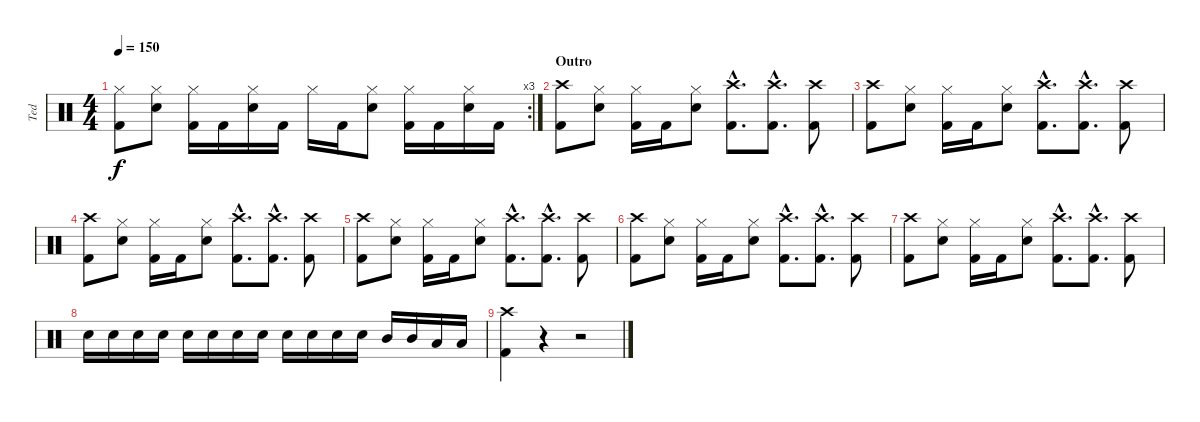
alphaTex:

\track ("Ted" "Ted") {instrument percussion}
\staff {score}
\articulation defaults
\rc 3
\ts (4 4)
\tempo 150
\clef neutral
\ks c
("Hi-Hat (closed)" "Kick (hit) 2").8{dy f} ("Hi-Hat (closed)" "Electric Snare (hit)").8 ("Hi-Hat (closed)" "Kick (hit) 2").16 "Kick (hit) 2".16 ("Hi-Hat (closed)" "Electric Snare (hit)").16 "Kick (hit) 2".16 "Hi-Hat (closed)".16 "Kick (hit) 2".16 ("Hi-Hat (closed)" "Electric Snare (hit)").8 ("Hi-Hat (closed)" "Kick (hit) 2").16 "Kick (hit) 2".16 ("Hi-Hat (closed)" "Electric Snare (hit)").16 "Kick (hit) 2".16 |
\section ("" "Outro")
("Crash high (hit)" "Kick (hit) 2").8 ("Hi-Hat (closed)" "Electric Snare (hit)").8 ("Hi-Hat (closed)" "Kick (hit) 2").16 "Kick (hit) 2".16 ("Hi-Hat (closed)" "Electric Snare (hit)").8 ("Crash high (hit)"{hac} "Kick (hit) 2"{hac}).8{d} ("Crash high (hit)"{hac} "Kick (hit) 2"{hac}).8{d} ("Crash high (hit)" "Kick (hit) 2").8 |
("Crash high (hit)" "Kick (hit) 2").8 ("Hi-Hat (closed)" "Electric Snare (hit)").8 ("Hi-Hat (closed)" "Kick (hit) 2").16 "Kick (hit) 2".16 ("Hi-Hat (closed)" "Electric Snare (hit)").8 ("Crash high (hit)"{hac} "Kick (hit) 2"{hac}).8{d} ("Crash high (hit)"{hac} "Kick (hit) 2"{hac}).8{d} ("Crash high (hit)" "Kick (hit) 2").8 |
("Crash high (hit)" "Kick (hit) 2").8 ("Hi-Hat (closed)" "Electric Snare (hit)").8 ("Hi-Hat (closed)" "Kick (hit) 2").16 "Kick (hit) 2".16 ("Hi-Hat (closed)" "Electric Snare (hit)").8 ("Crash high (hit)"{hac} "Kick (hit) 2"{hac}).8{d} ("Crash high (hit)"{hac} "Kick (hit) 2"{hac}).8{d} ("Crash high (hit)" "Kick (hit) 2").8 |
("Crash high (hit)" "Kick (hit) 2").8 ("Hi-Hat (closed)" "Electric Snare (hit)").8 ("Hi-Hat (closed)" "Kick (hit) 2").16 "Kick (hit) 2".16 ("Hi-Hat (closed)" "Electric Snare (hit)").8 ("Crash high (hit)"{hac} "Kick (hit) 2"{hac}).8{d} ("Crash high (hit)"{hac} "Kick (hit) 2"{hac}).8{d} ("Crash high (hit)" "Kick (hit) 2").8 |
("Crash high (hit)" "Kick (hit) 2").8 ("Hi-Hat (closed)" "Electric Snare (hit)").8 ("Hi-Hat (closed)" "Kick (hit) 2").16 "Kick (hit) 2".16 ("Hi-Hat (closed)" "Electric Snare (hit)").8 ("Crash high (hit)"{hac} "Kick (hit) 2"{hac}).8{d} ("Crash high (hit)"{hac} "Kick (hit) 2"{hac}).8{d} ("Crash high (hit)" "Kick (hit) 2").8 |
("Crash high (hit)" "Kick (hit) 2").8 ("Hi-Hat (closed)" "Electric Snare (hit)").8 ("Hi-Hat (closed)" "Kick (hit) 2").16 "Kick (hit) 2".16 ("Hi-Hat (closed)" "Electric Snare (hit)").8 ("Crash high (hit)"{hac} "Kick (hit) 2"{hac}).8{d} ("Crash high (hit)"{hac} "Kick (hit) 2"{hac}).8{d} ("Crash high (hit)" "Kick (hit) 2").8 |
"Electric Snare (hit)".16 "Electric Snare (hit)".16 "Electric Snare (hit)".16 "Electric Snare (hit)".16 "Electric Snare (hit)".16 "Electric Snare (hit)".16 "Electric Snare (hit)".16 "Electric Snare (hit)".16 "Electric Snare (hit)".16 "Electric Snare (hit)".16 "Electric Snare (hit)".16 "Electric Snare (hit)".16 "Mid Tom (hit)".16 "Mid Tom (hit)".16 "Low Tom (hit)".16 "Low Tom (hit)".16 |
("Crash high (hit)" "Kick (hit) 2").4 r.4 r.2
